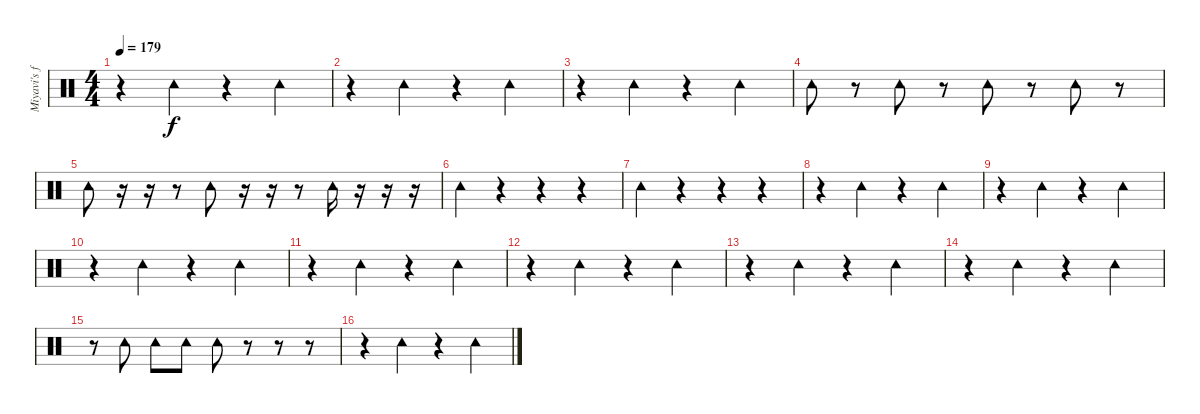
\track ("Miyavi's foot" "Miyavi's f") {instrument percussion}
\staff {score}
\articulation defaults
\ts (4 4)
\tempo 179
\clef neutral
\ks c
r.4{dy f} "Tambourine (hit)".4 r.4 "Tambourine (hit)".4 |
r.4 "Tambourine (hit)".4 r.4 "Tambourine (hit)".4 |
r.4 "Tambourine (hit)".4 r.4 "Tambourine (hit)".4 |
"Tambourine (hit)".8 r.8 "Tambourine (hit)".8 r.8 "Tambourine (hit)".8 r.8 "Tambourine (hit)".8 r.8 |
"Tambourine (hit)".8 r.16 r.16 r.8 "Tambourine (hit)".8 r.16 r.16 r.8 "Tambourine (hit)".16 r.16 r.16 r.16 |
"Tambourine (hit)".4 r.4 r.4 r.4 |
"Tambourine (hit)".4 r.4 r.4 r.4 |
r.4 "Tambourine (hit)".4 r.4 "Tambourine (hit)".4 |
r.4 "Tambourine (hit)".4 r.4 "Tambourine (hit)".4 |
r.4 "Tambourine (hit)".4 r.4 "Tambourine (hit)".4 |
r.4 "Tambourine (hit)".4 r.4 "Tambourine (hit)".4 |
r.4 "Tambourine (hit)".4 r.4 "Tambourine (hit)".4 |
r.4 "Tambourine (hit)".4 r.4 "Tambourine (hit)".4 |
r.4 "Tambourine (hit)".4 r.4 "Tambourine (hit)".4 |
r.8 "Tambourine (hit)".8 "Tambourine (hit)".8 "Tambourine (hit)".8 "Tambourine (hit)".8 r.8 r.8 r.8 |
r.4 "Tambourine (hit)".4 r.4 "Tambourine (hit)".4
